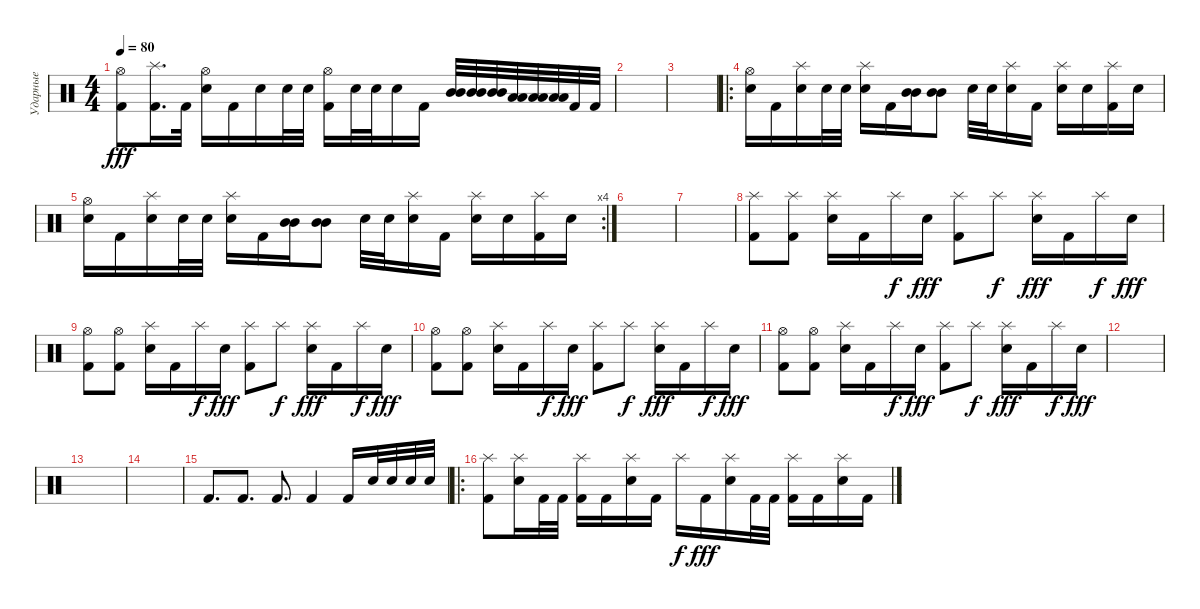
\track ("Ударные" "Ударные") {instrument percussion}
\staff {score}
\articulation defaults
\ts (4 4)
\tempo 80
\clef neutral
\ks c
("Hi-Hat (open)" "Kick (hit) 2").8{dy fff} ("Splash (hit)" "Kick (hit) 2").16{d} "Kick (hit) 2".32 ("Hi-Hat (open)" "Electric Snare (hit)").16 "Kick (hit) 2".16 "Electric Snare (hit)".16 "Electric Snare (hit)".32 "Electric Snare (hit)".32 ("Hi-Hat (open)" "Kick (hit) 2").16 "Electric Snare (hit)".32 "Electric Snare (hit)".32 "Electric Snare (hit)".16 "Kick (hit) 2".16 ("Mid Tom (hit)" "Mid Tom (hit)").32 ("Mid Tom (hit)" "Mid Tom (hit)").32 ("Mid Tom (hit)" "Mid Tom (hit)").32 ("Low Tom (hit)" "Low Tom (hit)").32 ("Low Tom (hit)" "Low Tom (hit)").32 ("Low Tom (hit)" "Low Tom (hit)").32 "Kick (hit) 2".32 "Kick (hit) 2".32 |
|
|
\ro
("Hi-Hat (open)" "Electric Snare (hit)").16 "Kick (hit) 2".16 ("Splash (hit)" "Electric Snare (hit)").16 "Electric Snare (hit)".32 "Electric Snare (hit)".32 ("Splash (hit)" "Electric Snare (hit)").16 "Kick (hit) 2".16 ("Mid Tom (hit)" "Mid Tom (hit)").16 ("Mid Tom (hit)" "Mid Tom (hit)").8 "Electric Snare (hit)".32 "Electric Snare (hit)".32 ("Splash (hit)" "Electric Snare (hit)").16 "Kick (hit) 2".16 ("Splash (hit)" "Electric Snare (hit)").16 "Electric Snare (hit)".16 ("Splash (hit)" "Kick (hit) 2").16 "Electric Snare (hit)".16 |
\rc 4
("Hi-Hat (open)" "Electric Snare (hit)").16 "Kick (hit) 2".16 ("Splash (hit)" "Electric Snare (hit)").16 "Electric Snare (hit)".32 "Electric Snare (hit)".32 ("Splash (hit)" "Electric Snare (hit)").16 "Kick (hit) 2".16 ("Mid Tom (hit)" "Mid Tom (hit)").16 ("Mid Tom (hit)" "Mid Tom (hit)").8 "Electric Snare (hit)".32 "Electric Snare (hit)".32 ("Splash (hit)" "Electric Snare (hit)").16 "Kick (hit) 2".16 ("Splash (hit)" "Electric Snare (hit)").16 "Electric Snare (hit)".16 ("Splash (hit)" "Kick (hit) 2").16 "Electric Snare (hit)".16 |
|
|
("Splash (hit)" "Kick (hit) 2").8 ("Splash (hit)" "Kick (hit) 2").8 ("Splash (hit)" "Electric Snare (hit)").16 "Kick (hit) 2".16 "Splash (hit)".16{dy f} "Electric Snare (hit)".16{dy fff} ("Splash (hit)" "Kick (hit) 2").8 "Splash (hit)".8{dy f} ("Splash (hit)" "Electric Snare (hit)").16{dy fff} "Kick (hit) 2".16 "Splash (hit)".16{dy f} "Electric Snare (hit)".16{dy fff} |
("Hi-Hat (open)" "Kick (hit) 2").8 ("Hi-Hat (open)" "Kick (hit) 2").8 ("Splash (hit)" "Electric Snare (hit)").16 "Kick (hit) 2".16 "Splash (hit)".16{dy f} "Electric Snare (hit)".16{dy fff} ("Splash (hit)" "Kick (hit) 2").8 "Splash (hit)".8{dy f} ("Splash (hit)" "Electric Snare (hit)").16{dy fff} "Kick (hit) 2".16 "Splash (hit)".16{dy f} "Electric Snare (hit)".16{dy fff} |
("Hi-Hat (open)" "Kick (hit) 2").8 ("Hi-Hat (open)" "Kick (hit) 2").8 ("Splash (hit)" "Electric Snare (hit)").16 "Kick (hit) 2".16 "Splash (hit)".16{dy f} "Electric Snare (hit)".16{dy fff} ("Splash (hit)" "Kick (hit) 2").8 "Splash (hit)".8{dy f} ("Splash (hit)" "Electric Snare (hit)").16{dy fff} "Kick (hit) 2".16 "Splash (hit)".16{dy f} "Electric Snare (hit)".16{dy fff} |
("Hi-Hat (open)" "Kick (hit) 2").8 ("Hi-Hat (open)" "Kick (hit) 2").8 ("Splash (hit)" "Electric Snare (hit)").16 "Kick (hit) 2".16 "Splash (hit)".16{dy f} "Electric Snare (hit)".16{dy fff} ("Splash (hit)" "Kick (hit) 2").8 "Splash (hit)".8{dy f} ("Splash (hit)" "Electric Snare (hit)").16{dy fff} "Kick (hit) 2".16 "Splash (hit)".16{dy f} "Electric Snare (hit)".16{dy fff} |
|
|
|
"Kick (hit) 2".8{d} "Kick (hit) 2".8{d} "Kick (hit) 2".8{d} "Kick (hit) 2".4 "Kick (hit) 2".16 "Electric Snare (hit)".32 "Electric Snare (hit)".32 "Electric Snare (hit)".32 "Electric Snare (hit)".32 |
\ro
("Splash (hit)" "Kick (hit) 2").8 ("Splash (hit)" "Electric Snare (hit)").16 "Kick (hit) 2".32 "Kick (hit) 2".32 ("Splash (hit)" "Kick (hit) 2").16 "Kick (hit) 2".16 ("Splash (hit)" "Electric Snare (hit)").16 "Kick (hit) 2".16 "Splash (hit)".16{dy f} "Kick (hit) 2".16{dy fff} ("Splash (hit)" "Electric Snare (hit)").16 "Kick (hit) 2".32 "Kick (hit) 2".32 ("Splash (hit)" "Kick (hit) 2").16 "Kick (hit) 2".16 ("Splash (hit)" "Electric Snare (hit)").16 "Kick (hit) 2".16
